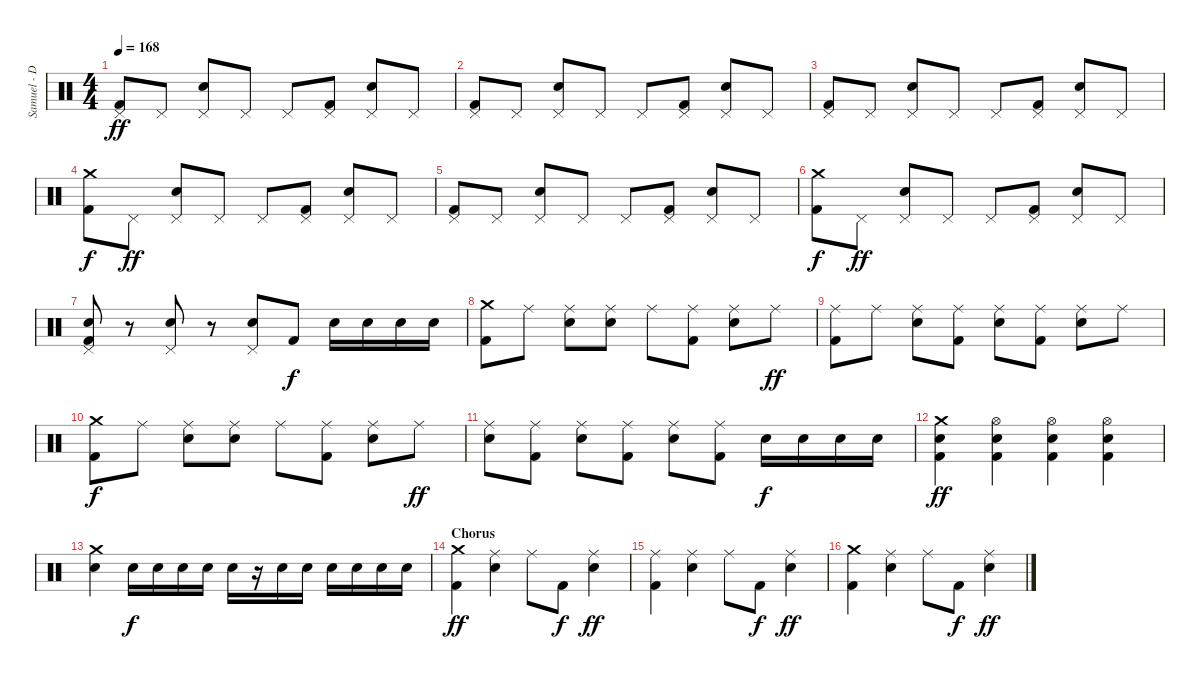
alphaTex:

\track ("Samuel - Drums" "Samuel - D") {instrument percussion}
\staff {score}
\articulation defaults
\ts (4 4)
\tempo 168
\clef neutral
\ks c
("Pedal Hi-Hat (hit)" "Kick (hit) 2").8{dy ff} "Pedal Hi-Hat (hit)".8 ("Pedal Hi-Hat (hit)" "Electric Snare (hit)").8 "Pedal Hi-Hat (hit)".8 "Pedal Hi-Hat (hit)".8 ("Pedal Hi-Hat (hit)" "Kick (hit) 2").8 ("Pedal Hi-Hat (hit)" "Electric Snare (hit)").8 "Pedal Hi-Hat (hit)".8 |
("Pedal Hi-Hat (hit)" "Kick (hit) 2").8 "Pedal Hi-Hat (hit)".8 ("Pedal Hi-Hat (hit)" "Electric Snare (hit)").8 "Pedal Hi-Hat (hit)".8 "Pedal Hi-Hat (hit)".8 ("Pedal Hi-Hat (hit)" "Kick (hit) 2").8 ("Pedal Hi-Hat (hit)" "Electric Snare (hit)").8 "Pedal Hi-Hat (hit)".8 |
("Pedal Hi-Hat (hit)" "Kick (hit) 2").8 "Pedal Hi-Hat (hit)".8 ("Pedal Hi-Hat (hit)" "Electric Snare (hit)").8 "Pedal Hi-Hat (hit)".8 "Pedal Hi-Hat (hit)".8 ("Pedal Hi-Hat (hit)" "Kick (hit) 2").8 ("Pedal Hi-Hat (hit)" "Electric Snare (hit)").8 "Pedal Hi-Hat (hit)".8 |
("Crash medium (hit)" "Kick (hit) 2").8{dy f} "Pedal Hi-Hat (hit)".8{dy ff} ("Pedal Hi-Hat (hit)" "Electric Snare (hit)").8 "Pedal Hi-Hat (hit)".8 "Pedal Hi-Hat (hit)".8 ("Pedal Hi-Hat (hit)" "Kick (hit) 2").8 ("Pedal Hi-Hat (hit)" "Electric Snare (hit)").8 "Pedal Hi-Hat (hit)".8 |
("Pedal Hi-Hat (hit)" "Kick (hit) 2").8 "Pedal Hi-Hat (hit)".8 ("Pedal Hi-Hat (hit)" "Electric Snare (hit)").8 "Pedal Hi-Hat (hit)".8 "Pedal Hi-Hat (hit)".8 ("Pedal Hi-Hat (hit)" "Kick (hit) 2").8 ("Pedal Hi-Hat (hit)" "Electric Snare (hit)").8 "Pedal Hi-Hat (hit)".8 |
("Crash medium (hit)" "Kick (hit) 2").8{dy f} "Pedal Hi-Hat (hit)".8{dy ff} ("Pedal Hi-Hat (hit)" "Electric Snare (hit)").8 "Pedal Hi-Hat (hit)".8 "Pedal Hi-Hat (hit)".8 ("Pedal Hi-Hat (hit)" "Kick (hit) 2").8 ("Pedal Hi-Hat (hit)" "Electric Snare (hit)").8 "Pedal Hi-Hat (hit)".8 |
("Pedal Hi-Hat (hit)" "Electric Snare (hit)" "Kick (hit) 2").8 r.8 ("Pedal Hi-Hat (hit)" "Electric Snare (hit)").8 r.8 ("Pedal Hi-Hat (hit)" "Electric Snare (hit)").8 "Kick (hit) 2".8{dy f} "Electric Snare (hit)".16 "Electric Snare (hit)".16 "Electric Snare (hit)".16 "Electric Snare (hit)".16 |
("Crash medium (hit)" "Kick (hit) 2").8 "Ride (middle)".8 ("Ride (middle)" "Electric Snare (hit)").8 ("Ride (middle)" "Electric Snare (hit)").8 "Ride (middle)".8 ("Ride (middle)" "Kick (hit) 2").8 ("Ride (middle)" "Electric Snare (hit)").8 "Ride (middle)".8{dy ff} |
("Ride (middle)" "Kick (hit) 2").8 "Ride (middle)".8 ("Ride (middle)" "Electric Snare (hit)").8 ("Ride (middle)" "Kick (hit) 2").8 ("Ride (middle)" "Electric Snare (hit)").8 ("Ride (middle)" "Kick (hit) 2").8 ("Ride (middle)" "Electric Snare (hit)").8 "Ride (middle)".8 |
("Crash medium (hit)" "Kick (hit) 2").8{dy f} "Ride (middle)".8 ("Ride (middle)" "Electric Snare (hit)").8 ("Ride (middle)" "Electric Snare (hit)").8 "Ride (middle)".8 ("Ride (middle)" "Kick (hit) 2").8 ("Ride (middle)" "Electric Snare (hit)").8 "Ride (middle)".8{dy ff} |
("Ride (middle)" "Electric Snare (hit)").8 ("Ride (middle)" "Kick (hit) 2").8 ("Ride (middle)" "Electric Snare (hit)").8 ("Ride (middle)" "Kick (hit) 2").8 ("Ride (middle)" "Electric Snare (hit)").8 ("Ride (middle)" "Kick (hit) 2").8 "Electric Snare (hit)".16{dy f} "Electric Snare (hit)".16 "Electric Snare (hit)".16 "Electric Snare (hit)".16 |
("Crash medium (hit)" "Electric Snare (hit)" "Kick (hit) 2").4{dy ff} ("Hi-Hat (open)" "Electric Snare (hit)" "Kick (hit) 2").4 ("Hi-Hat (open)" "Electric Snare (hit)" "Kick (hit) 2").4 ("Hi-Hat (open)" "Electric Snare (hit)" "Kick (hit) 2").4 |
("Crash medium (hit)" "Electric Snare (hit)").4 "Electric Snare (hit)".16{dy f} "Electric Snare (hit)".16 "Electric Snare (hit)".16 "Electric Snare (hit)".16 "Electric Snare (hit)".16 r.16 "Electric Snare (hit)".16 "Electric Snare (hit)".16 "Electric Snare (hit)".16 "Electric Snare (hit)".16 "Electric Snare (hit)".16 "Electric Snare (hit)".16 |
\section ("" "Chorus")
("Crash medium (hit)" "Kick (hit) 2").4{dy ff} ("Ride (middle)" "Electric Snare (hit)").4 "Ride (middle)".8 "Kick (hit) 2".8{dy f} ("Ride (middle)" "Electric Snare (hit)").4{dy ff} |
("Ride (middle)" "Kick (hit) 2").4 ("Ride (middle)" "Electric Snare (hit)").4 "Ride (middle)".8 "Kick (hit) 2".8{dy f} ("Ride (middle)" "Electric Snare (hit)").4{dy ff} |
("Crash medium (hit)" "Kick (hit) 2").4 ("Ride (middle)" "Electric Snare (hit)").4 "Ride (middle)".8 "Kick (hit) 2".8{dy f} ("Ride (middle)" "Electric Snare (hit)").4{dy ff}
